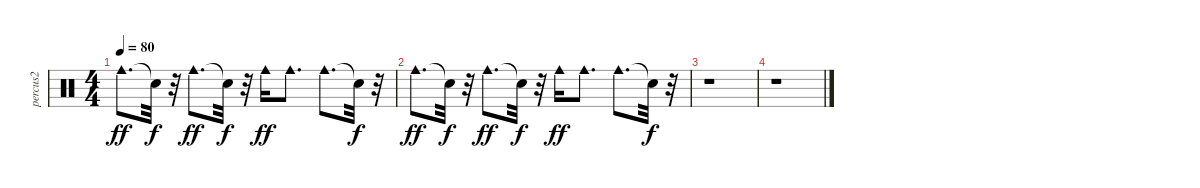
\track ("percus2" "percus2") {instrument percussion}
\staff {score}
\articulation defaults
\ts (4 4)
\tempo 80
\clef neutral
\ks c "Cowbell medium (hit)".8{d dy ff} "Snare (hit)"{t}.32{dy f}
r.32 "Cowbell medium (hit)".8{d dy ff} "Snare (hit)"{t}.32{dy f} r.32 "Cowbell medium (hit)".16{dy ff} "Cowbell medium (hit)".8{d} "Cowbell medium (hit)".8{d} "Snare (hit)"{t}.32{dy f} r.32 |
"Cowbell medium (hit)".8{d dy ff} "Snare (hit)"{t}.32{dy f} r.32 "Cowbell medium (hit)".8{d dy ff} "Snare (hit)"{t}.32{dy f} r.32 "Cowbell medium (hit)".16{dy ff} "Cowbell medium (hit)".8{d} "Cowbell medium (hit)".8{d} "Snare (hit)"{t}.32{dy f} r.32 |
r.1 |
r.1
